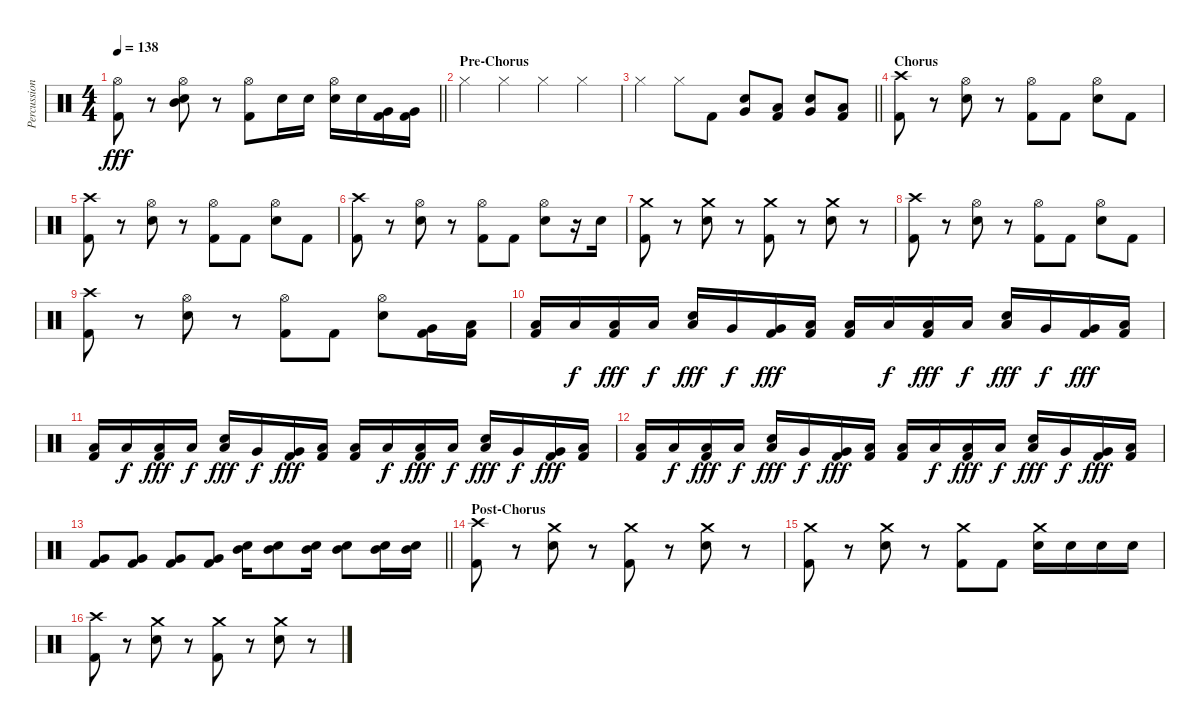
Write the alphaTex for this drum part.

\track ("Percussion" "Percussion") {instrument percussion}
\staff {score}
\articulation defaults
\ts (4 4)
\tempo 138
\clef neutral
\barLineRight lightlight
\ks c
("Kick (hit) 2" "Hi-Hat (open)").8{dy fff} r.8 ("Snare (hit) 2" "Mid Tom (hit)" "Hi-Hat (open)").8 r.8 ("Kick (hit) 2" "Hi-Hat (open)").8 "Snare (hit) 2".16 "Snare (hit) 2".16 ("Snare (hit) 2" "Hi-Hat (open)").16 "Snare (hit) 2".16 ("Kick (hit) 2" "Very Low Tom (hit)").16 ("Kick (hit) 2" "Very Low Tom (hit)").16 |
\section ("" "Pre-Chorus")
"Hi-Hat (closed)".4 "Hi-Hat (closed)".4 "Hi-Hat (closed)".4 "Hi-Hat (closed)".4 |
\barLineRight lightlight "Hi-Hat (closed)".4 "Hi-Hat (closed)".8 "Kick (hit) 2".8
("Snare (hit) 2" "Very Low Tom (hit)").8 ("Kick (hit) 2" "Low Floor Tom (hit)").8 ("Snare (hit) 2" "Very Low Tom (hit)").8 ("Kick (hit) 2" "Low Floor Tom (hit)").8 |
\section ("" "Chorus ")
("Kick (hit) 2" "Crash high (hit)").8 r.8 ("Snare (hit) 2" "Hi-Hat (open)").8 r.8 ("Kick (hit) 2" "Hi-Hat (open)").8 "Kick (hit) 2".8 ("Snare (hit) 2" "Hi-Hat (open)").8 "Kick (hit) 2".8 |
("Kick (hit) 2" "Crash high (hit)").8 r.8 ("Snare (hit) 2" "Hi-Hat (open)").8 r.8 ("Kick (hit) 2" "Hi-Hat (open)").8 "Kick (hit) 2".8 ("Snare (hit) 2" "Hi-Hat (open)").8 "Kick (hit) 2".8 |
("Kick (hit) 2" "Crash high (hit)").8 r.8 ("Snare (hit) 2" "Hi-Hat (open)").8 r.8 ("Kick (hit) 2" "Hi-Hat (open)").8 "Kick (hit) 2".8 ("Snare (hit) 2" "Hi-Hat (open)").8 r.16 "Snare (hit) 2".16 |
("Kick (hit) 2" "Crash medium (hit)").8 r.8 ("Snare (hit) 2" "Crash medium (hit)").8 r.8 ("Kick (hit) 2" "Crash medium (hit)").8 r.8 ("Snare (hit) 2" "Crash medium (hit)").8 r.8 |
("Kick (hit) 2" "Crash high (hit)").8 r.8 ("Snare (hit) 2" "Hi-Hat (open)").8 r.8 ("Kick (hit) 2" "Hi-Hat (open)").8 "Kick (hit) 2".8 ("Snare (hit) 2" "Hi-Hat (open)").8 "Kick (hit) 2".8 |
("Kick (hit) 2" "Crash high (hit)").8 r.8 ("Snare (hit) 2" "Hi-Hat (open)").8 r.8 ("Kick (hit) 2" "Hi-Hat (open)").8 "Kick (hit) 2".8 ("Snare (hit) 2" "Hi-Hat (open)").8 ("Kick (hit) 2" "Very Low Tom (hit)").16 ("Kick (hit) 2" "Low Tom (hit)").16 |
("Kick (hit) 2" "Low Tom (hit)").16 "Low Floor Tom (hit)".16{dy f} ("Kick (hit) 2" "Low Floor Tom (hit)").16{dy fff} "Low Floor Tom (hit)".16{dy f} ("Snare (hit) 2" "Low Floor Tom (hit)").16{dy fff} "Very Low Tom (hit)".16{dy f} ("Kick (hit) 2" "Very Low Tom (hit)").16{dy fff} ("Kick (hit) 2" "Low Tom (hit)").16 ("Kick (hit) 2" "Low Tom (hit)").16 "Low Floor Tom (hit)".16{dy f} ("Kick (hit) 2" "Low Floor Tom (hit)").16{dy fff} "Low Floor Tom (hit)".16{dy f} ("Snare (hit) 2" "Low Floor Tom (hit)").16{dy fff} "Very Low Tom (hit)".16{dy f} ("Kick (hit) 2" "Very Low Tom (hit)").16{dy fff} ("Kick (hit) 2" "Low Tom (hit)").16 |
("Kick (hit) 2" "Low Tom (hit)").16 "Low Floor Tom (hit)".16{dy f} ("Kick (hit) 2" "Low Floor Tom (hit)").16{dy fff} "Low Floor Tom (hit)".16{dy f} ("Snare (hit) 2" "Low Floor Tom (hit)").16{dy fff} "Very Low Tom (hit)".16{dy f} ("Kick (hit) 2" "Very Low Tom (hit)").16{dy fff} ("Kick (hit) 2" "Low Tom (hit)").16 ("Kick (hit) 2" "Low Tom (hit)").16 "Low Floor Tom (hit)".16{dy f} ("Kick (hit) 2" "Low Floor Tom (hit)").16{dy fff} "Low Floor Tom (hit)".16{dy f} ("Snare (hit) 2" "Low Floor Tom (hit)").16{dy fff} "Very Low Tom (hit)".16{dy f} ("Kick (hit) 2" "Very Low Tom (hit)").16{dy fff} ("Kick (hit) 2" "Low Tom (hit)").16 |
("Kick (hit) 2" "Low Tom (hit)").16 "Low Floor Tom (hit)".16{dy f} ("Kick (hit) 2" "Low Floor Tom (hit)").16{dy fff} "Low Floor Tom (hit)".16{dy f} ("Snare (hit) 2" "Low Floor Tom (hit)").16{dy fff} "Very Low Tom (hit)".16{dy f} ("Kick (hit) 2" "Very Low Tom (hit)").16{dy fff} ("Kick (hit) 2" "Low Tom (hit)").16 ("Kick (hit) 2" "Low Tom (hit)").16 "Low Floor Tom (hit)".16{dy f} ("Kick (hit) 2" "Low Floor Tom (hit)").16{dy fff} "Low Floor Tom (hit)".16{dy f} ("Snare (hit) 2" "Low Floor Tom (hit)").16{dy fff} "Very Low Tom (hit)".16{dy f} ("Kick (hit) 2" "Very Low Tom (hit)").16{dy fff} ("Kick (hit) 2" "Low Tom (hit)").16 |
\barLineRight lightlight
("Kick (hit) 2" "Very Low Tom (hit)").8 ("Kick (hit) 2" "Very Low Tom (hit)").8 ("Kick (hit) 2" "Very Low Tom (hit)").8 ("Kick (hit) 2" "Very Low Tom (hit)").8 ("Snare (hit) 2" "Mid Tom (hit)").16 ("Snare (hit) 2" "Mid Tom (hit)").8 ("Snare (hit) 2" "Mid Tom (hit)").16 ("Snare (hit) 2" "Mid Tom (hit)").8 ("Snare (hit) 2" "Mid Tom (hit)").16 ("Snare (hit) 2" "Mid Tom (hit)").16 |
\section ("" "Post-Chorus")
("Kick (hit) 2" "Crash high (hit)").8 r.8 ("Snare (hit) 2" "Crash medium (hit)").8 r.8 ("Kick (hit) 2" "Crash medium (hit)").8 r.8 ("Snare (hit) 2" "Crash medium (hit)").8 r.8 |
("Kick (hit) 2" "Crash medium (hit)").8 r.8 ("Snare (hit) 2" "Crash medium (hit)").8 r.8 ("Kick (hit) 2" "Crash medium (hit)").8 "Kick (hit) 2".8 ("Snare (hit) 2" "Crash medium (hit)").16 "Snare (hit) 2".16 "Snare (hit) 2".16 "Snare (hit) 2".16 |
("Kick (hit) 2" "Crash high (hit)").8 r.8 ("Snare (hit) 2" "Crash medium (hit)").8 r.8 ("Kick (hit) 2" "Crash medium (hit)").8 r.8 ("Snare (hit) 2" "Crash medium (hit)").8 r.8
